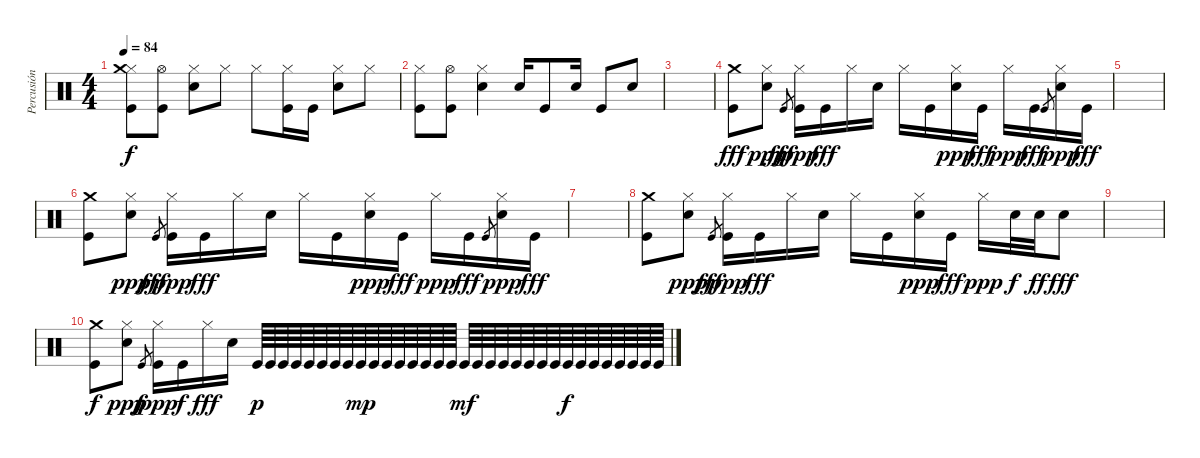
\track ("Percusión" "Percusión") {instrument percussion}
\staff {score}
\articulation defaults
\ts (4 4)
\tempo 84
\clef neutral
\ks c
("Kick (hit)" "Hi-Hat (closed)" "Crash medium (hit)").8{dy f} ("Kick (hit)" "Hi-Hat (open)").8 ("Snare (hit) 2" "Hi-Hat (closed)").8 "Hi-Hat (closed)".8 "Hi-Hat (closed)".8 ("Kick (hit)" "Hi-Hat (closed)").16 "Kick (hit)".16 ("Snare (hit) 2" "Hi-Hat (closed)").8 "Hi-Hat (closed)".8 |
("Kick (hit)" "Hi-Hat (closed)").8 ("Kick (hit)" "Hi-Hat (open)").8 ("Snare (hit) 2" "Hi-Hat (closed)").4 "Snare (hit) 2".16 "Kick (hit)".8 "Snare (hit) 2".16 "Kick (hit)".8 "Snare (hit) 2".8 |
|
("Kick (hit)" "Crash medium (hit)").8{dy fff} ("Snare (hit) 2" "Hi-Hat (closed)").8{dy ppp} "Kick (hit)".8{gr dy fff} ("Kick (hit)" "Hi-Hat (closed)").16{dy ppp} "Kick (hit)".16{dy fff} "Hi-Hat (closed)".16 "Snare (hit) 2".16 "Hi-Hat (closed)".16 "Kick (hit)".16 ("Snare (hit) 2" "Hi-Hat (closed)").16{dy ppp} "Kick (hit)".16{dy fff} "Hi-Hat (closed)".16{dy ppp} "Kick (hit)".16{dy fff} "Kick (hit)".8{gr} ("Snare (hit) 2" "Hi-Hat (closed)").16{dy ppp} "Kick (hit)".16{dy fff} |
|
("Kick (hit)" "Crash medium (hit)").8 ("Snare (hit) 2" "Hi-Hat (closed)").8{dy ppp} "Kick (hit)".8{gr dy fff} ("Kick (hit)" "Hi-Hat (closed)").16{dy ppp} "Kick (hit)".16{dy fff} "Hi-Hat (closed)".16 "Snare (hit) 2".16 "Hi-Hat (closed)".16 "Kick (hit)".16 ("Snare (hit) 2" "Hi-Hat (closed)").16{dy ppp} "Kick (hit)".16{dy fff} "Hi-Hat (closed)".16{dy ppp} "Kick (hit)".16{dy fff} "Kick (hit)".8{gr} ("Snare (hit) 2" "Hi-Hat (closed)").16{dy ppp} "Kick (hit)".16{dy fff} |
|
("Kick (hit)" "Crash medium (hit)").8 ("Snare (hit) 2" "Hi-Hat (closed)").8{dy ppp} "Kick (hit)".8{gr dy fff} ("Kick (hit)" "Hi-Hat (closed)").16{dy ppp} "Kick (hit)".16{dy fff} "Hi-Hat (closed)".16 "Snare (hit) 2".16 "Hi-Hat (closed)".16 "Kick (hit)".16 ("Snare (hit) 2" "Hi-Hat (closed)").16{dy ppp} "Kick (hit)".16{dy fff} "Hi-Hat (closed)".16{dy ppp} "Snare (hit) 2".32{dy f} "Snare (hit) 2".32{dy ff} "Snare (hit) 2".8{dy fff} |
|
("Kick (hit)" "Crash medium (hit)").8{dy f} ("Snare (hit) 2" "Hi-Hat (closed)").8{dy ppp} "Kick (hit)".8{gr dy f} ("Kick (hit)" "Hi-Hat (closed)").16{dy ppp} "Kick (hit)".16{dy f} "Hi-Hat (closed)".16{dy fff} "Snare (hit) 2".16 "Kick (hit)".64{dy p} "Kick (hit)".64 "Kick (hit)".64 "Kick (hit)".64 "Kick (hit)".64 "Kick (hit)".64 "Kick (hit)".64 "Kick (hit)".64 "Kick (hit)".64{dy mp} "Kick (hit)".64 "Kick (hit)".64 "Kick (hit)".64 "Kick (hit)".64 "Kick (hit)".64 "Kick (hit)".64 "Kick (hit)".64 "Kick (hit)".64{dy mf} "Kick (hit)".64 "Kick (hit)".64 "Kick (hit)".64 "Kick (hit)".64 "Kick (hit)".64 "Kick (hit)".64 "Kick (hit)".64 "Kick (hit)".64{dy f} "Kick (hit)".64 "Kick (hit)".64 "Kick (hit)".64 "Kick (hit)".64 "Kick (hit)".64 "Kick (hit)".64 "Kick (hit)".64
